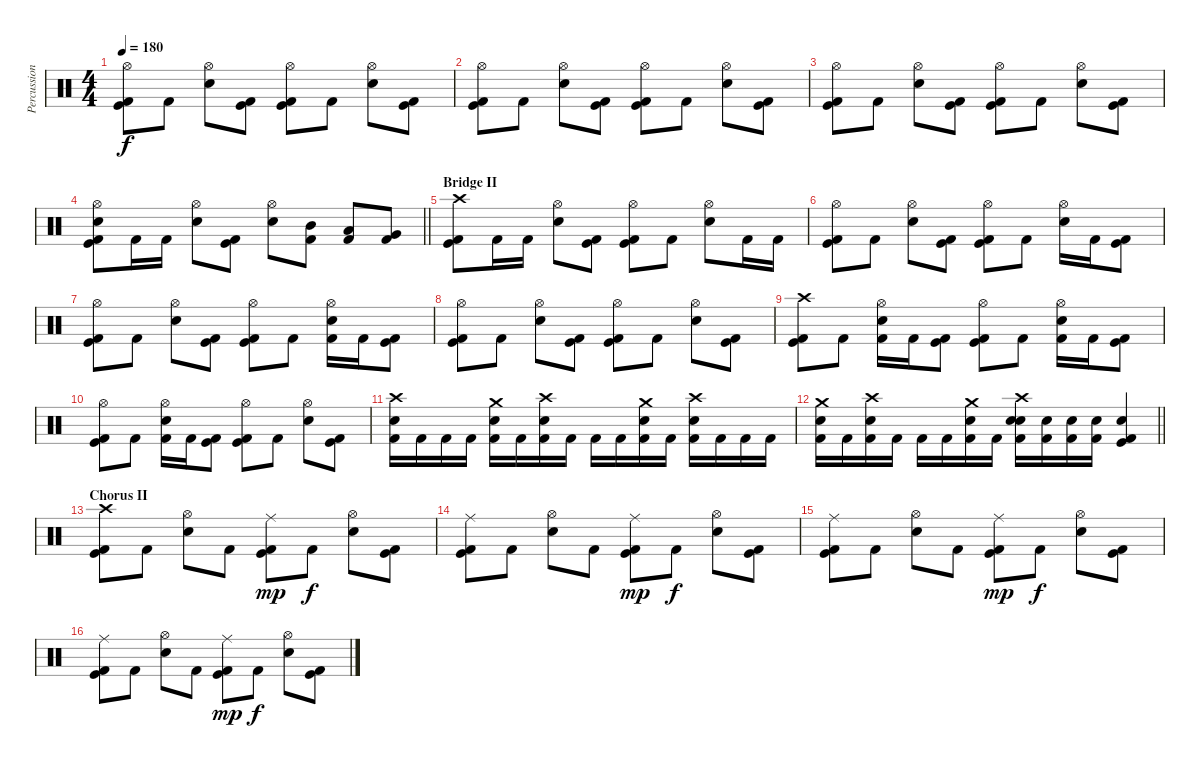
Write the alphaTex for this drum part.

\track ("Percussion" "Percussion") {instrument percussion}
\staff {score}
\articulation defaults
\ts (4 4)
\tempo 180
\clef neutral
\ks c
("Hi-Hat (open)" "Kick (hit)" "Kick (hit) 2").8{dy f} "Kick (hit) 2".8 ("Hi-Hat (open)" "Snare (hit) 2").8 ("Kick (hit)" "Kick (hit) 2").8 ("Hi-Hat (open)" "Kick (hit)" "Kick (hit) 2").8 "Kick (hit) 2".8 ("Hi-Hat (open)" "Snare (hit) 2").8 ("Kick (hit)" "Kick (hit) 2").8 |
("Hi-Hat (open)" "Kick (hit)" "Kick (hit) 2").8 "Kick (hit) 2".8 ("Hi-Hat (open)" "Snare (hit) 2").8 ("Kick (hit)" "Kick (hit) 2").8 ("Hi-Hat (open)" "Kick (hit)" "Kick (hit) 2").8 "Kick (hit) 2".8 ("Hi-Hat (open)" "Snare (hit) 2").8 ("Kick (hit)" "Kick (hit) 2").8 |
("Hi-Hat (open)" "Kick (hit)" "Kick (hit) 2").8 "Kick (hit) 2".8 ("Hi-Hat (open)" "Snare (hit) 2").8 ("Kick (hit)" "Kick (hit) 2").8 ("Hi-Hat (open)" "Kick (hit)" "Kick (hit) 2").8 "Kick (hit) 2".8 ("Hi-Hat (open)" "Snare (hit) 2").8 ("Kick (hit)" "Kick (hit) 2").8 |
\barLineRight lightlight
("Hi-Hat (open)" "Electric Snare (hit)" "Kick (hit)" "Kick (hit) 2").8 "Kick (hit) 2".16 "Kick (hit) 2".16 ("Hi-Hat (open)" "Electric Snare (hit)").8 ("Kick (hit)" "Kick (hit) 2").8 ("Hi-Hat (open)" "Snare (hit) 2").8 ("Mid Tom (hit)" "Kick (hit) 2").8 ("Low Tom (hit)" "Kick (hit) 2").8 ("Very Low Tom (hit)" "Kick (hit) 2").8 |
\section ("" "Bridge II")
("Crash high (hit)" "Kick (hit)" "Kick (hit) 2").8 "Kick (hit) 2".16 "Kick (hit) 2".16 ("Hi-Hat (open)" "Snare (hit) 2").8 ("Kick (hit)" "Kick (hit) 2").8 ("Hi-Hat (open)" "Kick (hit)" "Kick (hit) 2").8 "Kick (hit) 2".8 ("Hi-Hat (open)" "Snare (hit) 2").8 "Kick (hit) 2".16 "Kick (hit) 2".16 |
("Hi-Hat (open)" "Kick (hit)" "Kick (hit) 2").8 "Kick (hit) 2".8 ("Hi-Hat (open)" "Snare (hit) 2").8 ("Kick (hit)" "Kick (hit) 2").8 ("Hi-Hat (open)" "Kick (hit)" "Kick (hit) 2").8 "Kick (hit) 2".8 ("Hi-Hat (open)" "Snare (hit) 2").16 "Kick (hit) 2".16 ("Kick (hit)" "Kick (hit) 2").8 |
("Hi-Hat (open)" "Kick (hit)" "Kick (hit) 2").8 "Kick (hit) 2".8 ("Hi-Hat (open)" "Snare (hit) 2").8 ("Kick (hit)" "Kick (hit) 2").8 ("Hi-Hat (open)" "Kick (hit)" "Kick (hit) 2").8 "Kick (hit) 2".8 ("Hi-Hat (open)" "Snare (hit) 2" "Kick (hit) 2").16 "Kick (hit) 2".16 ("Kick (hit)" "Kick (hit) 2").8 |
("Hi-Hat (open)" "Kick (hit)" "Kick (hit) 2").8 "Kick (hit) 2".8 ("Hi-Hat (open)" "Snare (hit) 2").8 ("Kick (hit)" "Kick (hit) 2").8 ("Hi-Hat (open)" "Kick (hit)" "Kick (hit) 2").8 "Kick (hit) 2".8 ("Hi-Hat (open)" "Snare (hit) 2").8 ("Kick (hit)" "Kick (hit) 2").8 |
("Crash high (hit)" "Kick (hit)" "Kick (hit) 2").8 "Kick (hit) 2".8 ("Hi-Hat (open)" "Snare (hit) 2" "Kick (hit) 2").16 "Kick (hit) 2".16 ("Kick (hit)" "Kick (hit) 2").8 ("Hi-Hat (open)" "Kick (hit)" "Kick (hit) 2").8 "Kick (hit) 2".8 ("Hi-Hat (open)" "Snare (hit) 2" "Kick (hit) 2").16 "Kick (hit) 2".16 ("Kick (hit)" "Kick (hit) 2").8 |
("Hi-Hat (open)" "Kick (hit)" "Kick (hit) 2").8 "Kick (hit) 2".8 ("Hi-Hat (open)" "Snare (hit) 2" "Kick (hit) 2").16 "Kick (hit) 2".16 ("Kick (hit)" "Kick (hit) 2").8 ("Hi-Hat (open)" "Kick (hit)" "Kick (hit) 2").8 "Kick (hit) 2".8 ("Hi-Hat (open)" "Snare (hit) 2").8 ("Kick (hit)" "Kick (hit) 2").8 |
("Crash high (hit)" "Snare (hit) 2" "Kick (hit) 2").16 "Kick (hit) 2".16 "Kick (hit) 2".16 "Kick (hit) 2".16 ("Crash medium (hit)" "Snare (hit) 2" "Kick (hit) 2").16 "Kick (hit) 2".16 ("Crash high (hit)" "Snare (hit) 2" "Kick (hit) 2").16 "Kick (hit) 2".16 "Kick (hit) 2".16 "Kick (hit) 2".16 ("Crash medium (hit)" "Snare (hit) 2" "Kick (hit) 2").16 "Kick (hit) 2".16 ("Crash high (hit)" "Snare (hit) 2" "Kick (hit) 2").16 "Kick (hit) 2".16 "Kick (hit) 2".16 "Kick (hit) 2".16 |
\barLineRight lightlight
("Crash medium (hit)" "Snare (hit) 2" "Kick (hit) 2").16 "Kick (hit) 2".16 ("Crash high (hit)" "Snare (hit) 2" "Kick (hit) 2").16 "Kick (hit) 2".16 "Kick (hit) 2".16 "Kick (hit) 2".16 ("Crash medium (hit)" "Snare (hit) 2" "Kick (hit) 2").16 "Kick (hit) 2".16 ("Crash high (hit)" "Snare (hit) 2" "Electric Snare (hit)" "Kick (hit) 2").16 ("Electric Snare (hit)" "Kick (hit) 2").16 ("Electric Snare (hit)" "Kick (hit) 2").16 ("Electric Snare (hit)" "Kick (hit) 2").16 ("Snare (hit) 2" "Kick (hit)" "Kick (hit) 2").4 |
\section ("" "Chorus II")
("Crash high (hit)" "Kick (hit)" "Kick (hit) 2").8 "Kick (hit) 2".8 ("Hi-Hat (open)" "Snare (hit) 2").8 "Kick (hit) 2".8 ("Ride (middle)" "Kick (hit)" "Kick (hit) 2").8{dy mp} "Kick (hit) 2".8{dy f} ("Hi-Hat (open)" "Snare (hit) 2").8 ("Kick (hit)" "Kick (hit) 2").8 |
("Ride (middle)" "Kick (hit)" "Kick (hit) 2").8 "Kick (hit) 2".8 ("Hi-Hat (open)" "Snare (hit) 2").8 "Kick (hit) 2".8 ("Ride (middle)" "Kick (hit)" "Kick (hit) 2").8{dy mp} "Kick (hit) 2".8{dy f} ("Hi-Hat (open)" "Snare (hit) 2").8 ("Kick (hit)" "Kick (hit) 2").8 |
("Ride (middle)" "Kick (hit)" "Kick (hit) 2").8 "Kick (hit) 2".8 ("Hi-Hat (open)" "Snare (hit) 2").8 "Kick (hit) 2".8 ("Ride (middle)" "Kick (hit)" "Kick (hit) 2").8{dy mp} "Kick (hit) 2".8{dy f} ("Hi-Hat (open)" "Snare (hit) 2").8 ("Kick (hit)" "Kick (hit) 2").8 |
("Ride (middle)" "Kick (hit)" "Kick (hit) 2").8 "Kick (hit) 2".8 ("Hi-Hat (open)" "Snare (hit) 2").8 "Kick (hit) 2".8 ("Ride (middle)" "Kick (hit)" "Kick (hit) 2").8{dy mp} "Kick (hit) 2".8{dy f} ("Hi-Hat (open)" "Snare (hit) 2").8 ("Kick (hit)" "Kick (hit) 2").8
